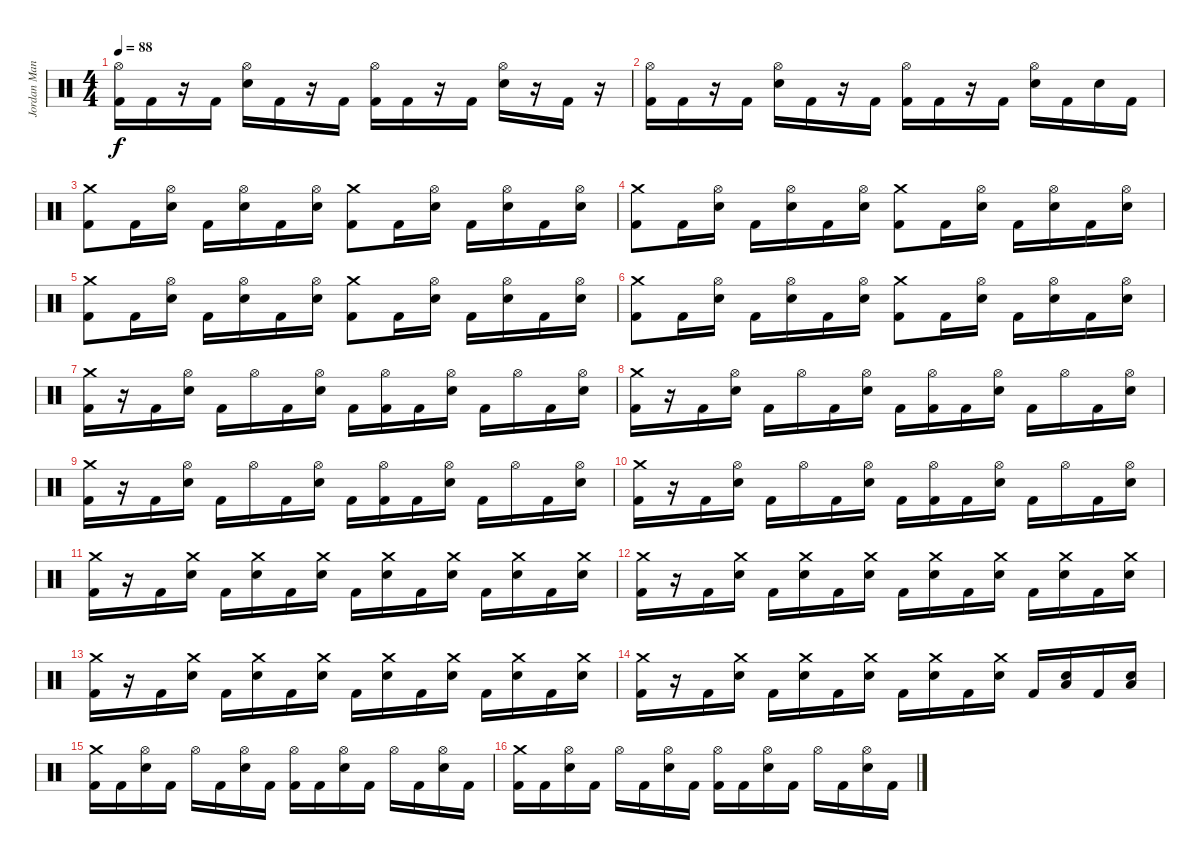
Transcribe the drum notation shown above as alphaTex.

\track ("Jordan Mancino" "Jordan Man") {instrument percussion}
\staff {score}
\articulation defaults
\ts (4 4)
\tempo 88
\clef neutral
\ks c
("Hi-Hat (open)" "Kick (hit) 2").16{dy f} "Kick (hit) 2".16 r.16 "Kick (hit) 2".16 ("Hi-Hat (open)" "Electric Snare (hit)").16 "Kick (hit) 2".16 r.16 "Kick (hit) 2".16 ("Hi-Hat (open)" "Kick (hit) 2").16 "Kick (hit) 2".16 r.16 "Kick (hit) 2".16 ("Hi-Hat (open)" "Electric Snare (hit)").16 r.16 "Kick (hit) 2".16 r.16 |
("Hi-Hat (open)" "Kick (hit) 2").16 "Kick (hit) 2".16 r.16 "Kick (hit) 2".16 ("Hi-Hat (open)" "Electric Snare (hit)").16 "Kick (hit) 2".16 r.16 "Kick (hit) 2".16 ("Hi-Hat (open)" "Kick (hit) 2").16 "Kick (hit) 2".16 r.16 "Kick (hit) 2".16 ("Hi-Hat (open)" "Electric Snare (hit)").16 "Kick (hit) 2".16 "Electric Snare (hit)".16 "Kick (hit) 2".16 |
("Crash medium (hit)" "Kick (hit) 2").8 "Kick (hit) 2".16 ("Hi-Hat (open)" "Electric Snare (hit)").16 "Kick (hit) 2".16 ("Hi-Hat (open)" "Electric Snare (hit)").16 "Kick (hit) 2".16 ("Hi-Hat (open)" "Electric Snare (hit)").16 ("Crash medium (hit)" "Kick (hit) 2").8 "Kick (hit) 2".16 ("Hi-Hat (open)" "Electric Snare (hit)").16 "Kick (hit) 2".16 ("Hi-Hat (open)" "Electric Snare (hit)").16 "Kick (hit) 2".16 ("Hi-Hat (open)" "Electric Snare (hit)").16 |
("Crash medium (hit)" "Kick (hit) 2").8 "Kick (hit) 2".16 ("Hi-Hat (open)" "Electric Snare (hit)").16 "Kick (hit) 2".16 ("Hi-Hat (open)" "Electric Snare (hit)").16 "Kick (hit) 2".16 ("Hi-Hat (open)" "Electric Snare (hit)").16 ("Crash medium (hit)" "Kick (hit) 2").8 "Kick (hit) 2".16 ("Hi-Hat (open)" "Electric Snare (hit)").16 "Kick (hit) 2".16 ("Hi-Hat (open)" "Electric Snare (hit)").16 "Kick (hit) 2".16 ("Hi-Hat (open)" "Electric Snare (hit)").16 |
("Crash medium (hit)" "Kick (hit) 2").8 "Kick (hit) 2".16 ("Hi-Hat (open)" "Electric Snare (hit)").16 "Kick (hit) 2".16 ("Hi-Hat (open)" "Electric Snare (hit)").16 "Kick (hit) 2".16 ("Hi-Hat (open)" "Electric Snare (hit)").16 ("Crash medium (hit)" "Kick (hit) 2").8 "Kick (hit) 2".16 ("Hi-Hat (open)" "Electric Snare (hit)").16 "Kick (hit) 2".16 ("Hi-Hat (open)" "Electric Snare (hit)").16 "Kick (hit) 2".16 ("Hi-Hat (open)" "Electric Snare (hit)").16 |
("Crash medium (hit)" "Kick (hit) 2").8 "Kick (hit) 2".16 ("Hi-Hat (open)" "Electric Snare (hit)").16 "Kick (hit) 2".16 ("Hi-Hat (open)" "Electric Snare (hit)").16 "Kick (hit) 2".16 ("Hi-Hat (open)" "Electric Snare (hit)").16 ("Crash medium (hit)" "Kick (hit) 2").8 "Kick (hit) 2".16 ("Hi-Hat (open)" "Electric Snare (hit)").16 "Kick (hit) 2".16 ("Hi-Hat (open)" "Electric Snare (hit)").16 "Kick (hit) 2".16 ("Hi-Hat (open)" "Electric Snare (hit)").16 |
("Crash medium (hit)" "Kick (hit) 2").16 r.16 "Kick (hit) 2".16 ("Hi-Hat (open)" "Electric Snare (hit)").16 "Kick (hit) 2".16 "Hi-Hat (open)".16 "Kick (hit) 2".16 ("Hi-Hat (open)" "Electric Snare (hit)").16 "Kick (hit) 2".16 ("Hi-Hat (open)" "Kick (hit) 2").16 "Kick (hit) 2".16 ("Hi-Hat (open)" "Electric Snare (hit)").16 "Kick (hit) 2".16 "Hi-Hat (open)".16 "Kick (hit) 2".16 ("Hi-Hat (open)" "Electric Snare (hit)").16 |
("Crash medium (hit)" "Kick (hit) 2").16 r.16 "Kick (hit) 2".16 ("Hi-Hat (open)" "Electric Snare (hit)").16 "Kick (hit) 2".16 "Hi-Hat (open)".16 "Kick (hit) 2".16 ("Hi-Hat (open)" "Electric Snare (hit)").16 "Kick (hit) 2".16 ("Hi-Hat (open)" "Kick (hit) 2").16 "Kick (hit) 2".16 ("Hi-Hat (open)" "Electric Snare (hit)").16 "Kick (hit) 2".16 "Hi-Hat (open)".16 "Kick (hit) 2".16 ("Hi-Hat (open)" "Electric Snare (hit)").16 |
("Crash medium (hit)" "Kick (hit) 2").16 r.16 "Kick (hit) 2".16 ("Hi-Hat (open)" "Electric Snare (hit)").16 "Kick (hit) 2".16 "Hi-Hat (open)".16 "Kick (hit) 2".16 ("Hi-Hat (open)" "Electric Snare (hit)").16 "Kick (hit) 2".16 ("Hi-Hat (open)" "Kick (hit) 2").16 "Kick (hit) 2".16 ("Hi-Hat (open)" "Electric Snare (hit)").16 "Kick (hit) 2".16 "Hi-Hat (open)".16 "Kick (hit) 2".16 ("Hi-Hat (open)" "Electric Snare (hit)").16 |
("Crash medium (hit)" "Kick (hit) 2").16 r.16 "Kick (hit) 2".16 ("Hi-Hat (open)" "Electric Snare (hit)").16 "Kick (hit) 2".16 "Hi-Hat (open)".16 "Kick (hit) 2".16 ("Hi-Hat (open)" "Electric Snare (hit)").16 "Kick (hit) 2".16 ("Hi-Hat (open)" "Kick (hit) 2").16 "Kick (hit) 2".16 ("Hi-Hat (open)" "Electric Snare (hit)").16 "Kick (hit) 2".16 "Hi-Hat (open)".16 "Kick (hit) 2".16 ("Hi-Hat (open)" "Electric Snare (hit)").16 |
("Crash medium (hit)" "Kick (hit) 2").16 r.16 "Kick (hit) 2".16 ("Crash medium (hit)" "Electric Snare (hit)").16 "Kick (hit) 2".16 ("Crash medium (hit)" "Electric Snare (hit)").16 "Kick (hit) 2".16 ("Crash medium (hit)" "Electric Snare (hit)").16 "Kick (hit) 2".16 ("Crash medium (hit)" "Electric Snare (hit)").16 "Kick (hit) 2".16 ("Crash medium (hit)" "Electric Snare (hit)").16 "Kick (hit) 2".16 ("Crash medium (hit)" "Electric Snare (hit)").16 "Kick (hit) 2".16 ("Crash medium (hit)" "Electric Snare (hit)").16 |
("Crash medium (hit)" "Kick (hit) 2").16 r.16 "Kick (hit) 2".16 ("Crash medium (hit)" "Electric Snare (hit)").16 "Kick (hit) 2".16 ("Crash medium (hit)" "Electric Snare (hit)").16 "Kick (hit) 2".16 ("Crash medium (hit)" "Electric Snare (hit)").16 "Kick (hit) 2".16 ("Crash medium (hit)" "Electric Snare (hit)").16 "Kick (hit) 2".16 ("Crash medium (hit)" "Electric Snare (hit)").16 "Kick (hit) 2".16 ("Crash medium (hit)" "Electric Snare (hit)").16 "Kick (hit) 2".16 ("Crash medium (hit)" "Electric Snare (hit)").16 |
("Crash medium (hit)" "Kick (hit) 2").16 r.16 "Kick (hit) 2".16 ("Crash medium (hit)" "Electric Snare (hit)").16 "Kick (hit) 2".16 ("Crash medium (hit)" "Electric Snare (hit)").16 "Kick (hit) 2".16 ("Crash medium (hit)" "Electric Snare (hit)").16 "Kick (hit) 2".16 ("Crash medium (hit)" "Electric Snare (hit)").16 "Kick (hit) 2".16 ("Crash medium (hit)" "Electric Snare (hit)").16 "Kick (hit) 2".16 ("Crash medium (hit)" "Electric Snare (hit)").16 "Kick (hit) 2".16 ("Crash medium (hit)" "Electric Snare (hit)").16 |
("Crash medium (hit)" "Kick (hit) 2").16 r.16 "Kick (hit) 2".16 ("Crash medium (hit)" "Electric Snare (hit)").16 "Kick (hit) 2".16 ("Crash medium (hit)" "Electric Snare (hit)").16 "Kick (hit) 2".16 ("Crash medium (hit)" "Electric Snare (hit)").16 "Kick (hit) 2".16 ("Crash medium (hit)" "Electric Snare (hit)").16 "Kick (hit) 2".16 ("Crash medium (hit)" "Electric Snare (hit)").16 "Kick (hit) 2".16 ("Electric Snare (hit)" "Low Floor Tom (hit)").16 "Kick (hit) 2".16 ("Electric Snare (hit)" "Low Floor Tom (hit)").16 |
("Crash medium (hit)" "Kick (hit) 2").16 "Kick (hit) 2".16 ("Hi-Hat (open)" "Electric Snare (hit)").16 "Kick (hit) 2".16 "Hi-Hat (open)".16 "Kick (hit) 2".16 ("Hi-Hat (open)" "Electric Snare (hit)").16 "Kick (hit) 2".16 ("Hi-Hat (open)" "Kick (hit) 2").16 "Kick (hit) 2".16 ("Hi-Hat (open)" "Electric Snare (hit)").16 "Kick (hit) 2".16 "Hi-Hat (open)".16 "Kick (hit) 2".16 ("Hi-Hat (open)" "Electric Snare (hit)").16 "Kick (hit) 2".16 |
("Crash medium (hit)" "Kick (hit) 2").16 "Kick (hit) 2".16 ("Hi-Hat (open)" "Electric Snare (hit)").16 "Kick (hit) 2".16 "Hi-Hat (open)".16 "Kick (hit) 2".16 ("Hi-Hat (open)" "Electric Snare (hit)").16 "Kick (hit) 2".16 ("Hi-Hat (open)" "Kick (hit) 2").16 "Kick (hit) 2".16 ("Hi-Hat (open)" "Electric Snare (hit)").16 "Kick (hit) 2".16 "Hi-Hat (open)".16 "Kick (hit) 2".16 ("Hi-Hat (open)" "Electric Snare (hit)").16 "Kick (hit) 2".16
